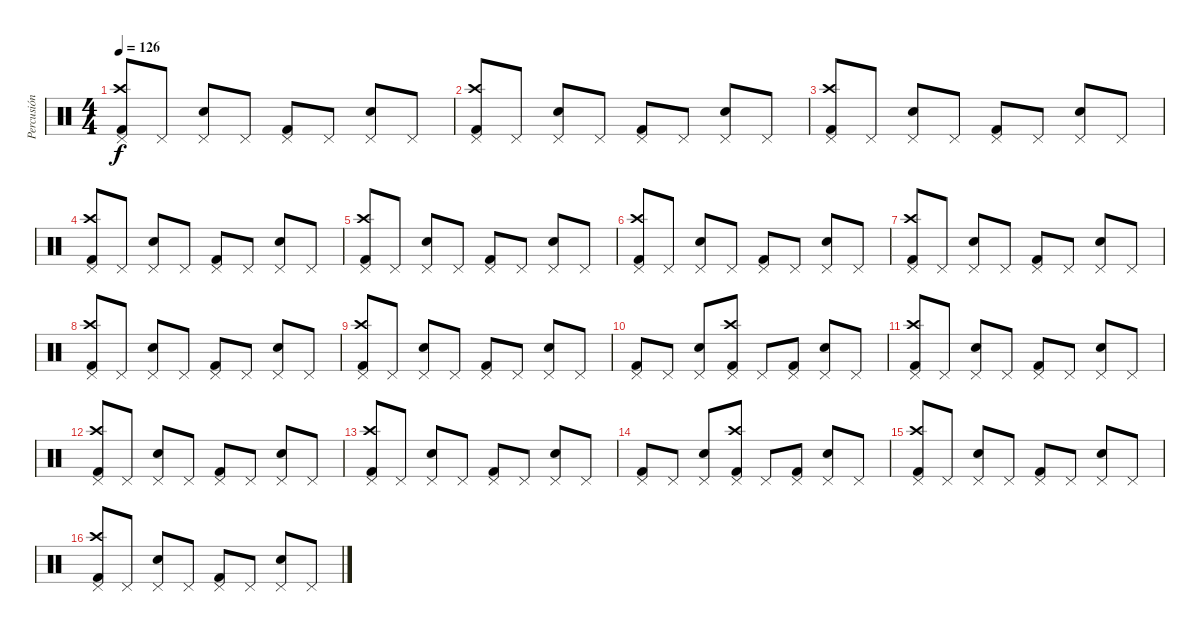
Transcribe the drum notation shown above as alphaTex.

\track ("Percusión" "Percusión") {instrument percussion}
\staff {score}
\articulation defaults
\ts (4 4)
\tempo 126
\clef neutral
\ks c
("Pedal Hi-Hat (hit)" "Crash high (hit)" "Kick (hit) 2").8{dy f} "Pedal Hi-Hat (hit)".8 ("Pedal Hi-Hat (hit)" "Snare (hit) 2").8 "Pedal Hi-Hat (hit)".8 ("Pedal Hi-Hat (hit)" "Kick (hit) 2").8 "Pedal Hi-Hat (hit)".8 ("Pedal Hi-Hat (hit)" "Snare (hit) 2").8 "Pedal Hi-Hat (hit)".8 |
("Pedal Hi-Hat (hit)" "Crash high (hit)" "Kick (hit) 2").8 "Pedal Hi-Hat (hit)".8 ("Pedal Hi-Hat (hit)" "Snare (hit) 2").8 "Pedal Hi-Hat (hit)".8 ("Pedal Hi-Hat (hit)" "Kick (hit) 2").8 "Pedal Hi-Hat (hit)".8 ("Pedal Hi-Hat (hit)" "Snare (hit) 2").8 "Pedal Hi-Hat (hit)".8 |
("Pedal Hi-Hat (hit)" "Crash high (hit)" "Kick (hit) 2").8 "Pedal Hi-Hat (hit)".8 ("Pedal Hi-Hat (hit)" "Snare (hit) 2").8 "Pedal Hi-Hat (hit)".8 ("Pedal Hi-Hat (hit)" "Kick (hit) 2").8 "Pedal Hi-Hat (hit)".8 ("Pedal Hi-Hat (hit)" "Snare (hit) 2").8 "Pedal Hi-Hat (hit)".8 |
("Pedal Hi-Hat (hit)" "Crash high (hit)" "Kick (hit) 2").8 "Pedal Hi-Hat (hit)".8 ("Pedal Hi-Hat (hit)" "Snare (hit) 2").8 "Pedal Hi-Hat (hit)".8 ("Pedal Hi-Hat (hit)" "Kick (hit) 2").8 "Pedal Hi-Hat (hit)".8 ("Pedal Hi-Hat (hit)" "Snare (hit) 2").8 "Pedal Hi-Hat (hit)".8 |
("Pedal Hi-Hat (hit)" "Crash high (hit)" "Kick (hit) 2").8 "Pedal Hi-Hat (hit)".8 ("Pedal Hi-Hat (hit)" "Snare (hit) 2").8 "Pedal Hi-Hat (hit)".8 ("Pedal Hi-Hat (hit)" "Kick (hit) 2").8 "Pedal Hi-Hat (hit)".8 ("Pedal Hi-Hat (hit)" "Snare (hit) 2").8 "Pedal Hi-Hat (hit)".8 |
("Pedal Hi-Hat (hit)" "Crash high (hit)" "Kick (hit) 2").8 "Pedal Hi-Hat (hit)".8 ("Pedal Hi-Hat (hit)" "Snare (hit) 2").8 "Pedal Hi-Hat (hit)".8 ("Pedal Hi-Hat (hit)" "Kick (hit) 2").8 "Pedal Hi-Hat (hit)".8 ("Pedal Hi-Hat (hit)" "Snare (hit) 2").8 "Pedal Hi-Hat (hit)".8 |
("Pedal Hi-Hat (hit)" "Crash high (hit)" "Kick (hit) 2").8 "Pedal Hi-Hat (hit)".8 ("Pedal Hi-Hat (hit)" "Snare (hit) 2").8 "Pedal Hi-Hat (hit)".8 ("Pedal Hi-Hat (hit)" "Kick (hit) 2").8 "Pedal Hi-Hat (hit)".8 ("Pedal Hi-Hat (hit)" "Snare (hit) 2").8 "Pedal Hi-Hat (hit)".8 |
("Pedal Hi-Hat (hit)" "Crash high (hit)" "Kick (hit) 2").8 "Pedal Hi-Hat (hit)".8 ("Pedal Hi-Hat (hit)" "Snare (hit) 2").8 "Pedal Hi-Hat (hit)".8 ("Pedal Hi-Hat (hit)" "Kick (hit) 2").8 "Pedal Hi-Hat (hit)".8 ("Pedal Hi-Hat (hit)" "Snare (hit) 2").8 "Pedal Hi-Hat (hit)".8 |
("Pedal Hi-Hat (hit)" "Crash high (hit)" "Kick (hit) 2").8 "Pedal Hi-Hat (hit)".8 ("Pedal Hi-Hat (hit)" "Snare (hit) 2").8 "Pedal Hi-Hat (hit)".8 ("Pedal Hi-Hat (hit)" "Kick (hit) 2").8 "Pedal Hi-Hat (hit)".8 ("Pedal Hi-Hat (hit)" "Snare (hit) 2").8 "Pedal Hi-Hat (hit)".8 |
("Pedal Hi-Hat (hit)" "Kick (hit) 2").8 "Pedal Hi-Hat (hit)".8 ("Pedal Hi-Hat (hit)" "Snare (hit) 2").8 ("Pedal Hi-Hat (hit)" "Crash high (hit)" "Kick (hit) 2").8 "Pedal Hi-Hat (hit)".8 ("Pedal Hi-Hat (hit)" "Kick (hit) 2").8 ("Pedal Hi-Hat (hit)" "Snare (hit) 2").8 "Pedal Hi-Hat (hit)".8 |
("Pedal Hi-Hat (hit)" "Crash high (hit)" "Kick (hit) 2").8 "Pedal Hi-Hat (hit)".8 ("Pedal Hi-Hat (hit)" "Snare (hit) 2").8 "Pedal Hi-Hat (hit)".8 ("Pedal Hi-Hat (hit)" "Kick (hit) 2").8 "Pedal Hi-Hat (hit)".8 ("Pedal Hi-Hat (hit)" "Snare (hit) 2").8 "Pedal Hi-Hat (hit)".8 |
("Pedal Hi-Hat (hit)" "Crash high (hit)" "Kick (hit) 2").8 "Pedal Hi-Hat (hit)".8 ("Pedal Hi-Hat (hit)" "Snare (hit) 2").8 "Pedal Hi-Hat (hit)".8 ("Pedal Hi-Hat (hit)" "Kick (hit) 2").8 "Pedal Hi-Hat (hit)".8 ("Pedal Hi-Hat (hit)" "Snare (hit) 2").8 "Pedal Hi-Hat (hit)".8 |
("Pedal Hi-Hat (hit)" "Crash high (hit)" "Kick (hit) 2").8 "Pedal Hi-Hat (hit)".8 ("Pedal Hi-Hat (hit)" "Snare (hit) 2").8 "Pedal Hi-Hat (hit)".8 ("Pedal Hi-Hat (hit)" "Kick (hit) 2").8 "Pedal Hi-Hat (hit)".8 ("Pedal Hi-Hat (hit)" "Snare (hit) 2").8 "Pedal Hi-Hat (hit)".8 |
("Pedal Hi-Hat (hit)" "Kick (hit) 2").8 "Pedal Hi-Hat (hit)".8 ("Pedal Hi-Hat (hit)" "Snare (hit) 2").8 ("Pedal Hi-Hat (hit)" "Crash high (hit)" "Kick (hit) 2").8 "Pedal Hi-Hat (hit)".8 ("Pedal Hi-Hat (hit)" "Kick (hit) 2").8 ("Pedal Hi-Hat (hit)" "Snare (hit) 2").8 "Pedal Hi-Hat (hit)".8 |
("Pedal Hi-Hat (hit)" "Crash high (hit)" "Kick (hit) 2").8 "Pedal Hi-Hat (hit)".8 ("Pedal Hi-Hat (hit)" "Snare (hit) 2").8 "Pedal Hi-Hat (hit)".8 ("Pedal Hi-Hat (hit)" "Kick (hit) 2").8 "Pedal Hi-Hat (hit)".8 ("Pedal Hi-Hat (hit)" "Snare (hit) 2").8 "Pedal Hi-Hat (hit)".8 |
("Pedal Hi-Hat (hit)" "Crash high (hit)" "Kick (hit) 2").8 "Pedal Hi-Hat (hit)".8 ("Pedal Hi-Hat (hit)" "Snare (hit) 2").8 "Pedal Hi-Hat (hit)".8 ("Pedal Hi-Hat (hit)" "Kick (hit) 2").8 "Pedal Hi-Hat (hit)".8 ("Pedal Hi-Hat (hit)" "Snare (hit) 2").8 "Pedal Hi-Hat (hit)".8
